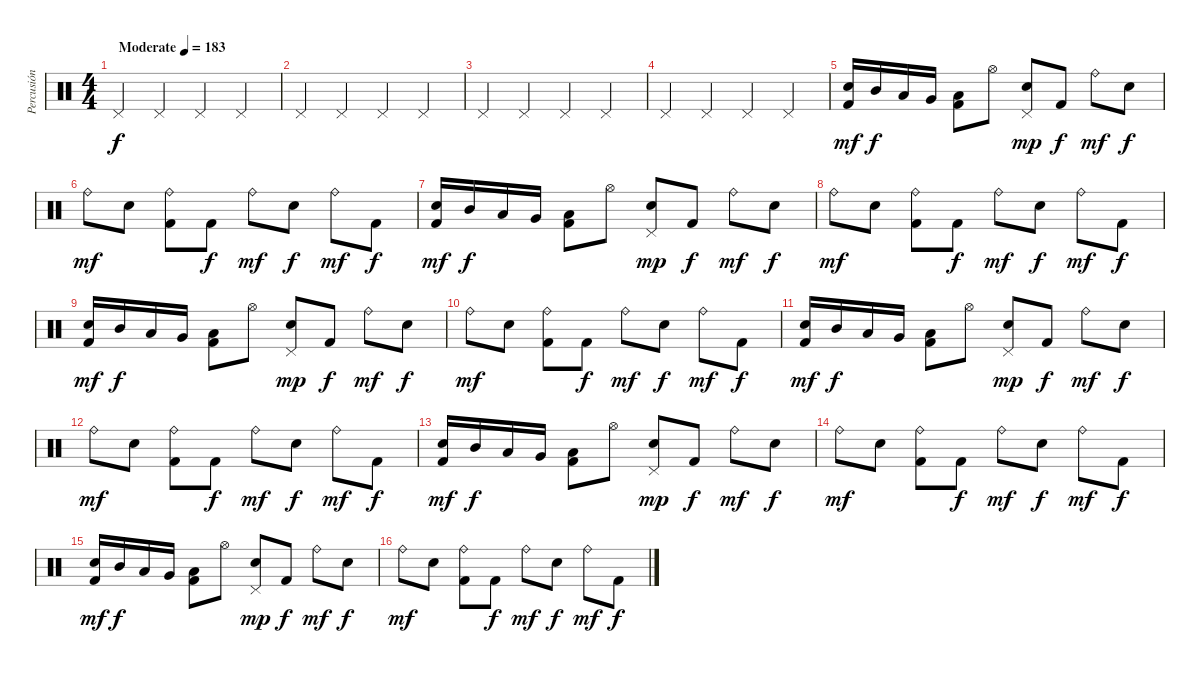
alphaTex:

\track ("Percusión" "Percusión") {instrument percussion}
\staff {score}
\articulation defaults
\ts (4 4)
\tempo (183 "Moderate")
\clef neutral
\ks c "Pedal Hi-Hat (hit)".4{dy f} "Pedal Hi-Hat (hit)".4 "Pedal Hi-Hat (hit)".4 "Pedal Hi-Hat (hit)".4
|
"Pedal Hi-Hat (hit)".4 "Pedal Hi-Hat (hit)".4 "Pedal Hi-Hat (hit)".4 "Pedal Hi-Hat (hit)".4 |
"Pedal Hi-Hat (hit)".4 "Pedal Hi-Hat (hit)".4 "Pedal Hi-Hat (hit)".4 "Pedal Hi-Hat (hit)".4 |
"Pedal Hi-Hat (hit)".4 "Pedal Hi-Hat (hit)".4 "Pedal Hi-Hat (hit)".4 "Pedal Hi-Hat (hit)".4 |
("Electric Snare (hit)" "Kick (hit) 2").16{dy mf} "Mid Tom (hit)".16{dy f} "Low Tom (hit)".16 "Very Low Tom (hit)".16 ("Low Floor Tom (hit)" "Kick (hit) 2").8 "Hi-Hat (open)".8 ("Pedal Hi-Hat (hit)" "Electric Snare (hit)").8{dy mp} "Kick (hit) 2".8{dy f} "Ride (bell)".8{dy mf} "Electric Snare (hit)".8{dy f} |
"Ride (bell)".8{dy mf} "Electric Snare (hit)".8 ("Ride (bell)" "Kick (hit) 2").8 "Kick (hit) 2".8{dy f} "Ride (bell)".8{dy mf} "Electric Snare (hit)".8{dy f} "Ride (bell)".8{dy mf} "Kick (hit) 2".8{dy f} |
("Electric Snare (hit)" "Kick (hit) 2").16{dy mf} "Mid Tom (hit)".16{dy f} "Low Tom (hit)".16 "Very Low Tom (hit)".16 ("Low Floor Tom (hit)" "Kick (hit) 2").8 "Hi-Hat (open)".8 ("Pedal Hi-Hat (hit)" "Electric Snare (hit)").8{dy mp} "Kick (hit) 2".8{dy f} "Ride (bell)".8{dy mf} "Electric Snare (hit)".8{dy f} |
"Ride (bell)".8{dy mf} "Electric Snare (hit)".8 ("Ride (bell)" "Kick (hit) 2").8 "Kick (hit) 2".8{dy f} "Ride (bell)".8{dy mf} "Electric Snare (hit)".8{dy f} "Ride (bell)".8{dy mf} "Kick (hit) 2".8{dy f} |
("Electric Snare (hit)" "Kick (hit) 2").16{dy mf} "Mid Tom (hit)".16{dy f} "Low Tom (hit)".16 "Very Low Tom (hit)".16 ("Low Floor Tom (hit)" "Kick (hit) 2").8 "Hi-Hat (open)".8 ("Pedal Hi-Hat (hit)" "Electric Snare (hit)").8{dy mp} "Kick (hit) 2".8{dy f} "Ride (bell)".8{dy mf} "Electric Snare (hit)".8{dy f} |
"Ride (bell)".8{dy mf} "Electric Snare (hit)".8 ("Ride (bell)" "Kick (hit) 2").8 "Kick (hit) 2".8{dy f} "Ride (bell)".8{dy mf} "Electric Snare (hit)".8{dy f} "Ride (bell)".8{dy mf} "Kick (hit) 2".8{dy f} |
("Electric Snare (hit)" "Kick (hit) 2").16{dy mf} "Mid Tom (hit)".16{dy f} "Low Tom (hit)".16 "Very Low Tom (hit)".16 ("Low Floor Tom (hit)" "Kick (hit) 2").8 "Hi-Hat (open)".8 ("Pedal Hi-Hat (hit)" "Electric Snare (hit)").8{dy mp} "Kick (hit) 2".8{dy f} "Ride (bell)".8{dy mf} "Electric Snare (hit)".8{dy f} |
"Ride (bell)".8{dy mf} "Electric Snare (hit)".8 ("Ride (bell)" "Kick (hit) 2").8 "Kick (hit) 2".8{dy f} "Ride (bell)".8{dy mf} "Electric Snare (hit)".8{dy f} "Ride (bell)".8{dy mf} "Kick (hit) 2".8{dy f} |
("Electric Snare (hit)" "Kick (hit) 2").16{dy mf} "Mid Tom (hit)".16{dy f} "Low Tom (hit)".16 "Very Low Tom (hit)".16 ("Low Floor Tom (hit)" "Kick (hit) 2").8 "Hi-Hat (open)".8 ("Pedal Hi-Hat (hit)" "Electric Snare (hit)").8{dy mp} "Kick (hit) 2".8{dy f} "Ride (bell)".8{dy mf} "Electric Snare (hit)".8{dy f} |
"Ride (bell)".8{dy mf} "Electric Snare (hit)".8 ("Ride (bell)" "Kick (hit) 2").8 "Kick (hit) 2".8{dy f} "Ride (bell)".8{dy mf} "Electric Snare (hit)".8{dy f} "Ride (bell)".8{dy mf} "Kick (hit) 2".8{dy f} |
("Electric Snare (hit)" "Kick (hit) 2").16{dy mf} "Mid Tom (hit)".16{dy f} "Low Tom (hit)".16 "Very Low Tom (hit)".16 ("Low Floor Tom (hit)" "Kick (hit) 2").8 "Hi-Hat (open)".8 ("Pedal Hi-Hat (hit)" "Electric Snare (hit)").8{dy mp} "Kick (hit) 2".8{dy f} "Ride (bell)".8{dy mf} "Electric Snare (hit)".8{dy f} |
"Ride (bell)".8{dy mf} "Electric Snare (hit)".8 ("Ride (bell)" "Kick (hit) 2").8 "Kick (hit) 2".8{dy f} "Ride (bell)".8{dy mf} "Electric Snare (hit)".8{dy f} "Ride (bell)".8{dy mf} "Kick (hit) 2".8{dy f}
